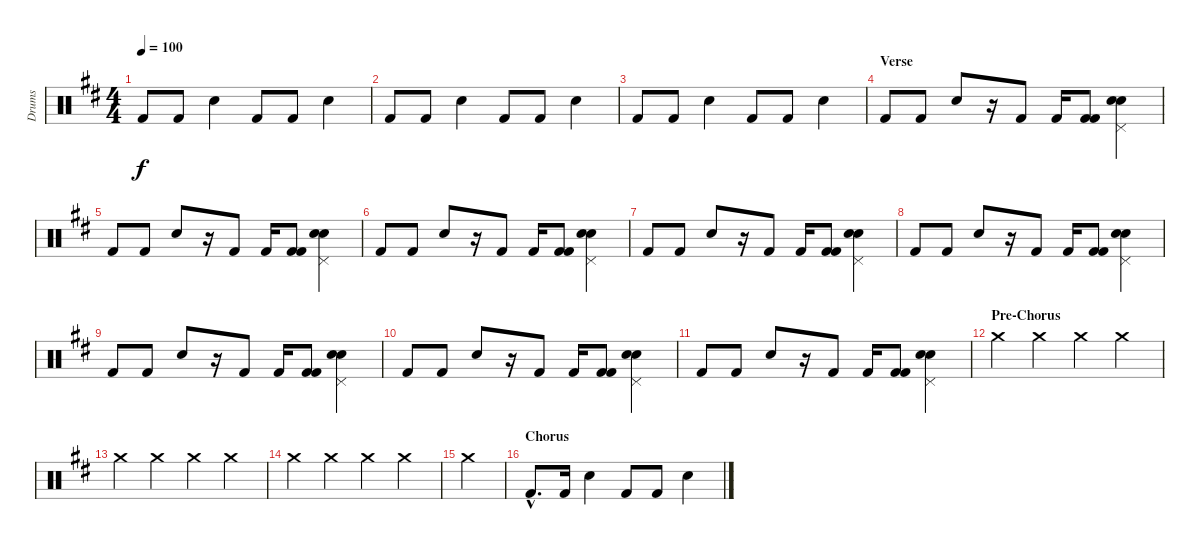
\track ("Drums" "Drums") {instrument percussion}
\staff {score}
\articulation defaults
\ts (4 4)
\tempo 100
\clef neutral
\ks d "Kick (hit) 2".8{dy f} "Kick (hit) 2".8 "Snare (hit) 2".4 "Kick (hit) 2".8 "Kick (hit) 2".8 "Snare (hit) 2".4
|
"Kick (hit) 2".8 "Kick (hit) 2".8 "Snare (hit) 2".4 "Kick (hit) 2".8 "Kick (hit) 2".8 "Snare (hit) 2".4 |
"Kick (hit) 2".8 "Kick (hit) 2".8 "Snare (hit) 2".4 "Kick (hit) 2".8 "Kick (hit) 2".8 "Snare (hit) 2".4 |
\section ("" "Verse")
"Kick (hit) 2".8 "Kick (hit) 2".8 "Snare (hit) 2".8 r.16 "Kick (hit) 2".8 "Kick (hit) 2".16 ("Kick (hit) 2" "Kick (hit) 2").8 ("Snare (hit) 2" "Pedal Hi-Hat (hit)" "Electric Snare (hit)").4 |
"Kick (hit) 2".8 "Kick (hit) 2".8 "Snare (hit) 2".8 r.16 "Kick (hit) 2".8 "Kick (hit) 2".16 ("Kick (hit) 2" "Kick (hit) 2").8 ("Snare (hit) 2" "Pedal Hi-Hat (hit)" "Electric Snare (hit)").4 |
"Kick (hit) 2".8 "Kick (hit) 2".8 "Snare (hit) 2".8 r.16 "Kick (hit) 2".8 "Kick (hit) 2".16 ("Kick (hit) 2" "Kick (hit) 2").8 ("Snare (hit) 2" "Pedal Hi-Hat (hit)" "Electric Snare (hit)").4 |
"Kick (hit) 2".8 "Kick (hit) 2".8 "Snare (hit) 2".8 r.16 "Kick (hit) 2".8 "Kick (hit) 2".16 ("Kick (hit) 2" "Kick (hit) 2").8 ("Snare (hit) 2" "Pedal Hi-Hat (hit)" "Electric Snare (hit)").4 |
"Kick (hit) 2".8 "Kick (hit) 2".8 "Snare (hit) 2".8 r.16 "Kick (hit) 2".8 "Kick (hit) 2".16 ("Kick (hit) 2" "Kick (hit) 2").8 ("Snare (hit) 2" "Pedal Hi-Hat (hit)" "Electric Snare (hit)").4 |
"Kick (hit) 2".8 "Kick (hit) 2".8 "Snare (hit) 2".8 r.16 "Kick (hit) 2".8 "Kick (hit) 2".16 ("Kick (hit) 2" "Kick (hit) 2").8 ("Snare (hit) 2" "Pedal Hi-Hat (hit)" "Electric Snare (hit)").4 |
"Kick (hit) 2".8 "Kick (hit) 2".8 "Snare (hit) 2".8 r.16 "Kick (hit) 2".8 "Kick (hit) 2".16 ("Kick (hit) 2" "Kick (hit) 2").8 ("Snare (hit) 2" "Pedal Hi-Hat (hit)" "Electric Snare (hit)").4 |
"Kick (hit) 2".8 "Kick (hit) 2".8 "Snare (hit) 2".8 r.16 "Kick (hit) 2".8 "Kick (hit) 2".16 ("Kick (hit) 2" "Kick (hit) 2").8 ("Snare (hit) 2" "Pedal Hi-Hat (hit)" "Electric Snare (hit)").4 |
\section ("" "Pre-Chorus")
"Crash medium (hit)".4 "Crash medium (hit)".4 "Crash medium (hit)".4 "Crash medium (hit)".4 |
"Crash medium (hit)".4 "Crash medium (hit)".4 "Crash medium (hit)".4 "Crash medium (hit)".4 |
"Crash medium (hit)".4 "Crash medium (hit)".4 "Crash medium (hit)".4 "Crash medium (hit)".4 |
"Crash medium (hit)".4 |
\section ("" "Chorus")
"Kick (hit) 2"{hac}.8{d} "Kick (hit) 2".16 "Snare (hit) 2".4 "Kick (hit) 2".8 "Kick (hit) 2".8 "Snare (hit) 2".4
